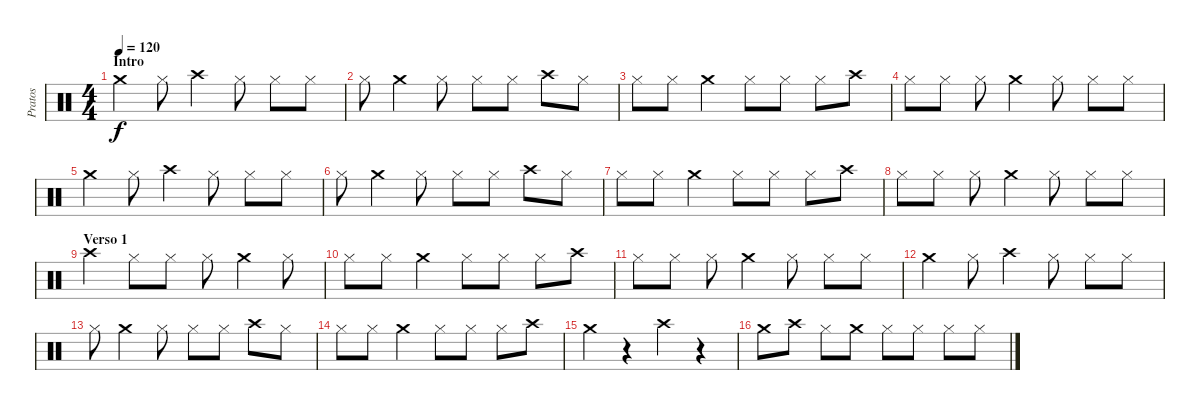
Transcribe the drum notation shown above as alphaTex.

\track ("Pratos" "Pratos") {instrument percussion}
\staff {score}
\articulation defaults
\ts (4 4)
\section ("" "Intro")
\tempo 120
\clef neutral
\ks c "Crash medium (hit)".4{dy f} "Hi-Hat (closed)".8 "Crash high (hit)".4 "Hi-Hat (closed)".8 "Hi-Hat (closed)".8 "Hi-Hat (closed)".8
|
"Hi-Hat (closed)".8 "Crash medium (hit)".4 "Hi-Hat (closed)".8 "Hi-Hat (closed)".8 "Hi-Hat (closed)".8 "Crash high (hit)".8 "Hi-Hat (closed)".8 |
"Hi-Hat (closed)".8 "Hi-Hat (closed)".8 "Crash medium (hit)".4 "Hi-Hat (closed)".8 "Hi-Hat (closed)".8 "Hi-Hat (closed)".8 "Crash high (hit)".8 |
"Hi-Hat (closed)".8 "Hi-Hat (closed)".8 "Hi-Hat (closed)".8 "Crash medium (hit)".4 "Hi-Hat (closed)".8 "Hi-Hat (closed)".8 "Hi-Hat (closed)".8 |
"Crash medium (hit)".4 "Hi-Hat (closed)".8 "Crash high (hit)".4 "Hi-Hat (closed)".8 "Hi-Hat (closed)".8 "Hi-Hat (closed)".8 |
"Hi-Hat (closed)".8 "Crash medium (hit)".4 "Hi-Hat (closed)".8 "Hi-Hat (closed)".8 "Hi-Hat (closed)".8 "Crash high (hit)".8 "Hi-Hat (closed)".8 |
"Hi-Hat (closed)".8 "Hi-Hat (closed)".8 "Crash medium (hit)".4 "Hi-Hat (closed)".8 "Hi-Hat (closed)".8 "Hi-Hat (closed)".8 "Crash high (hit)".8 |
"Hi-Hat (closed)".8 "Hi-Hat (closed)".8 "Hi-Hat (closed)".8 "Crash medium (hit)".4 "Hi-Hat (closed)".8 "Hi-Hat (closed)".8 "Hi-Hat (closed)".8 |
\section ("" "Verso 1")
"Crash high (hit)".4 "Hi-Hat (closed)".8 "Hi-Hat (closed)".8 "Hi-Hat (closed)".8 "Crash medium (hit)".4 "Hi-Hat (closed)".8 |
"Hi-Hat (closed)".8 "Hi-Hat (closed)".8 "Crash medium (hit)".4 "Hi-Hat (closed)".8 "Hi-Hat (closed)".8 "Hi-Hat (closed)".8 "Crash high (hit)".8 |
"Hi-Hat (closed)".8 "Hi-Hat (closed)".8 "Hi-Hat (closed)".8 "Crash medium (hit)".4 "Hi-Hat (closed)".8 "Hi-Hat (closed)".8 "Hi-Hat (closed)".8 |
"Crash medium (hit)".4 "Hi-Hat (closed)".8 "Crash high (hit)".4 "Hi-Hat (closed)".8 "Hi-Hat (closed)".8 "Hi-Hat (closed)".8 |
"Hi-Hat (closed)".8 "Crash medium (hit)".4 "Hi-Hat (closed)".8 "Hi-Hat (closed)".8 "Hi-Hat (closed)".8 "Crash high (hit)".8 "Hi-Hat (closed)".8 |
"Hi-Hat (closed)".8 "Hi-Hat (closed)".8 "Crash medium (hit)".4 "Hi-Hat (closed)".8 "Hi-Hat (closed)".8 "Hi-Hat (closed)".8 "Crash high (hit)".8 |
"Crash medium (hit)".4 r.4 "Crash high (hit)".4 r.4 |
"Crash medium (hit)".8 "Crash high (hit)".8 "Hi-Hat (closed)".8 "Crash medium (hit)".8 "Hi-Hat (closed)".8 "Hi-Hat (closed)".8 "Hi-Hat (closed)".8 "Hi-Hat (closed)".8
